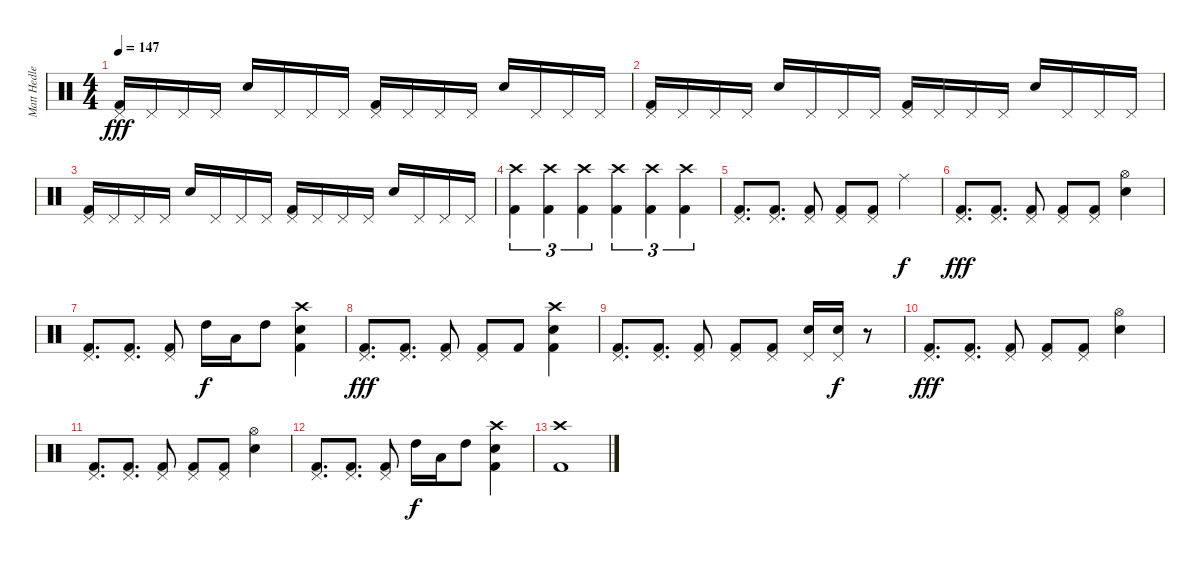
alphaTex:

\track ("Matt Hedlers" "Matt Hedle") {instrument percussion}
\staff {score}
\articulation defaults
\ts (4 4)
\tempo 147
\clef neutral
\ks c
("Pedal Hi-Hat (hit)" "Kick (hit) 2").16{dy fff} "Pedal Hi-Hat (hit)".16 "Pedal Hi-Hat (hit)".16 "Pedal Hi-Hat (hit)".16 "Snare (hit) 2".16 "Pedal Hi-Hat (hit)".16 "Pedal Hi-Hat (hit)".16 "Pedal Hi-Hat (hit)".16 ("Pedal Hi-Hat (hit)" "Kick (hit) 2").16 "Pedal Hi-Hat (hit)".16 "Pedal Hi-Hat (hit)".16 "Pedal Hi-Hat (hit)".16 "Snare (hit) 2".16 "Pedal Hi-Hat (hit)".16 "Pedal Hi-Hat (hit)".16 "Pedal Hi-Hat (hit)".16 |
("Pedal Hi-Hat (hit)" "Kick (hit) 2").16 "Pedal Hi-Hat (hit)".16 "Pedal Hi-Hat (hit)".16 "Pedal Hi-Hat (hit)".16 "Snare (hit) 2".16 "Pedal Hi-Hat (hit)".16 "Pedal Hi-Hat (hit)".16 "Pedal Hi-Hat (hit)".16 ("Pedal Hi-Hat (hit)" "Kick (hit) 2").16 "Pedal Hi-Hat (hit)".16 "Pedal Hi-Hat (hit)".16 "Pedal Hi-Hat (hit)".16 "Snare (hit) 2".16 "Pedal Hi-Hat (hit)".16 "Pedal Hi-Hat (hit)".16 "Pedal Hi-Hat (hit)".16 |
("Pedal Hi-Hat (hit)" "Kick (hit) 2").16 "Pedal Hi-Hat (hit)".16 "Pedal Hi-Hat (hit)".16 "Pedal Hi-Hat (hit)".16 "Snare (hit) 2".16 "Pedal Hi-Hat (hit)".16 "Pedal Hi-Hat (hit)".16 "Pedal Hi-Hat (hit)".16 ("Pedal Hi-Hat (hit)" "Kick (hit) 2").16 "Pedal Hi-Hat (hit)".16 "Pedal Hi-Hat (hit)".16 "Pedal Hi-Hat (hit)".16 "Snare (hit) 2".16 "Pedal Hi-Hat (hit)".16 "Pedal Hi-Hat (hit)".16 "Pedal Hi-Hat (hit)".16 |
("Crash high (hit)" "Kick (hit) 2").4{tu (3 2)} ("Crash high (hit)" "Kick (hit) 2").4{tu (3 2)} ("Crash high (hit)" "Kick (hit) 2").4{tu (3 2)} ("Crash high (hit)" "Kick (hit) 2").4{tu (3 2)} ("Crash high (hit)" "Kick (hit) 2").4{tu (3 2)} ("Crash high (hit)" "Kick (hit) 2").4{tu (3 2)} |
("Pedal Hi-Hat (hit)" "Kick (hit) 2").8{d} ("Pedal Hi-Hat (hit)" "Kick (hit) 2").8{d} ("Pedal Hi-Hat (hit)" "Kick (hit) 2").8 ("Pedal Hi-Hat (hit)" "Kick (hit) 2").8 ("Pedal Hi-Hat (hit)" "Kick (hit) 2").8 "Ride (middle)".4{dy f} |
("Pedal Hi-Hat (hit)" "Kick (hit) 2").8{d dy fff} ("Pedal Hi-Hat (hit)" "Kick (hit) 2").8{d} ("Pedal Hi-Hat (hit)" "Kick (hit) 2").8 ("Pedal Hi-Hat (hit)" "Kick (hit) 2").8 ("Pedal Hi-Hat (hit)" "Kick (hit) 2").8 ("Hi-Hat (open)" "Snare (hit) 2").4 |
("Pedal Hi-Hat (hit)" "Kick (hit) 2").8{d} ("Pedal Hi-Hat (hit)" "Kick (hit) 2").8{d} ("Pedal Hi-Hat (hit)" "Kick (hit) 2").8 "High Tom (hit)".16{dy f} "Low Tom (hit)".16 "High Tom (hit)".8 ("Crash high (hit)" "Snare (hit) 2" "Kick (hit) 2").4 |
("Pedal Hi-Hat (hit)" "Kick (hit) 2").8{d dy fff} ("Pedal Hi-Hat (hit)" "Kick (hit) 2").8{d} ("Pedal Hi-Hat (hit)" "Kick (hit) 2").8 ("Pedal Hi-Hat (hit)" "Kick (hit) 2").8 "Kick (hit) 2".8 ("Crash high (hit)" "Snare (hit) 2" "Kick (hit) 2").4 |
("Pedal Hi-Hat (hit)" "Kick (hit) 2").8{d} ("Pedal Hi-Hat (hit)" "Kick (hit) 2").8{d} ("Pedal Hi-Hat (hit)" "Kick (hit) 2").8 ("Pedal Hi-Hat (hit)" "Kick (hit) 2").8 ("Pedal Hi-Hat (hit)" "Kick (hit) 2").8 ("Pedal Hi-Hat (hit)" "Snare (hit) 2").16 ("Pedal Hi-Hat (hit)" "Snare (hit) 2").16{dy f} r.8 |
("Pedal Hi-Hat (hit)" "Kick (hit) 2").8{d dy fff} ("Pedal Hi-Hat (hit)" "Kick (hit) 2").8{d} ("Pedal Hi-Hat (hit)" "Kick (hit) 2").8 ("Pedal Hi-Hat (hit)" "Kick (hit) 2").8 ("Pedal Hi-Hat (hit)" "Kick (hit) 2").8 ("Hi-Hat (open)" "Snare (hit) 2").4 |
("Pedal Hi-Hat (hit)" "Kick (hit) 2").8{d} ("Pedal Hi-Hat (hit)" "Kick (hit) 2").8{d} ("Pedal Hi-Hat (hit)" "Kick (hit) 2").8 ("Pedal Hi-Hat (hit)" "Kick (hit) 2").8 ("Pedal Hi-Hat (hit)" "Kick (hit) 2").8 ("Hi-Hat (open)" "Snare (hit) 2").4 |
("Pedal Hi-Hat (hit)" "Kick (hit) 2").8{d} ("Pedal Hi-Hat (hit)" "Kick (hit) 2").8{d} ("Pedal Hi-Hat (hit)" "Kick (hit) 2").8 "High Tom (hit)".16{dy f} "Low Tom (hit)".16 "High Tom (hit)".8 ("Crash high (hit)" "Snare (hit) 2" "Kick (hit) 2").4 |
("Crash high (hit)" "Kick (hit) 2").1
